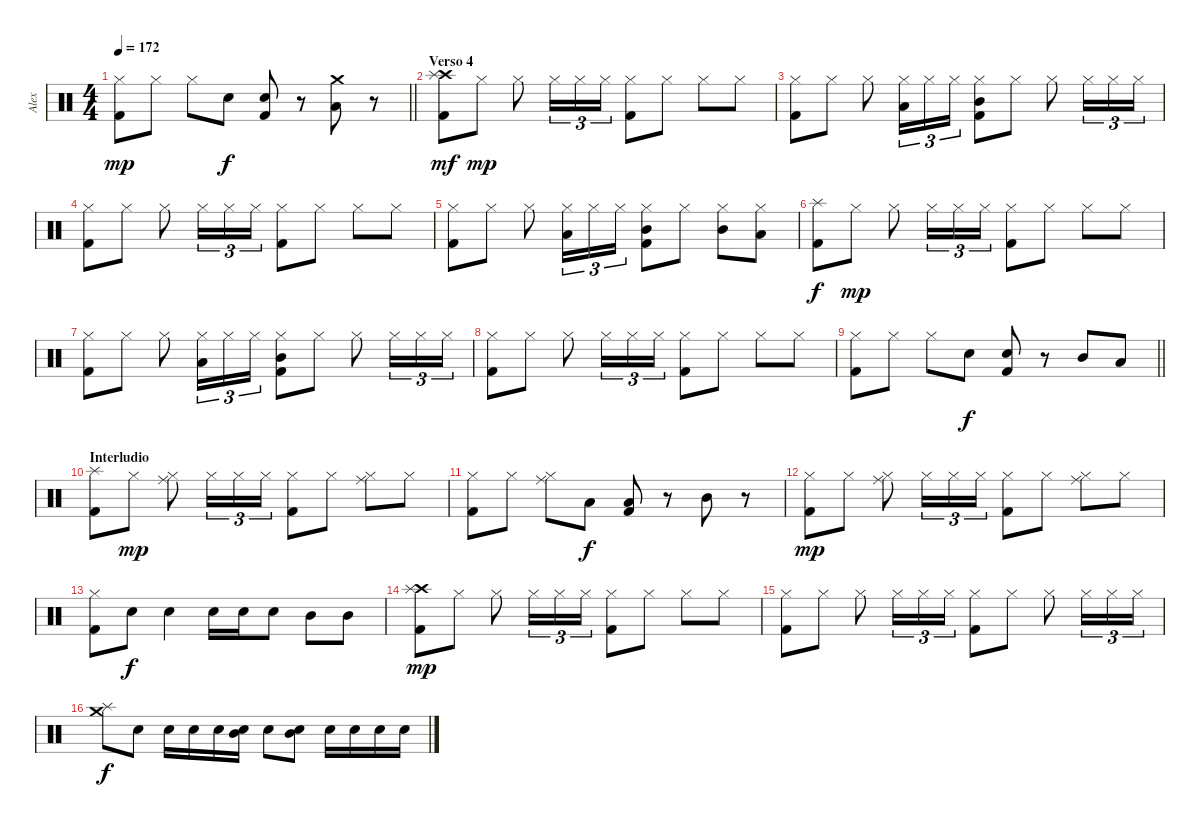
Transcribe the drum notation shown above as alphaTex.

\track ("Alex" "Alex") {instrument percussion}
\staff {score}
\articulation defaults
\ts (4 4)
\tempo 172
\clef neutral
\barLineRight lightlight
\ks c
("Hi-Hat (closed)" "Kick (hit) 2").8{dy mp} "Hi-Hat (closed)".8 "Hi-Hat (closed)".8 "Electric Snare (hit)".8{dy f} ("Electric Snare (hit)" "Kick (hit) 2").8 r.8 ("Low Tom (hit)" "Crash medium (hit)").8 r.8 |
\section ("" "Verso 4")
("Crash high (hit)" "Splash (hit)" "Kick (hit) 2").8{dy mf} "Hi-Hat (closed)".8{dy mp} "Hi-Hat (closed)".8 "Hi-Hat (closed)".16{tu (3 2)} "Hi-Hat (closed)".16{tu (3 2)} "Hi-Hat (closed)".16{tu (3 2)} ("Hi-Hat (closed)" "Kick (hit) 2").8 "Hi-Hat (closed)".8 "Hi-Hat (closed)".8 "Hi-Hat (closed)".8 |
("Hi-Hat (closed)" "Kick (hit) 2").8 "Hi-Hat (closed)".8 "Hi-Hat (closed)".8 ("Hi-Hat (closed)" "Low Tom (hit)").16{tu (3 2)} "Hi-Hat (closed)".16{tu (3 2)} "Hi-Hat (closed)".16{tu (3 2)} ("Hi-Hat (closed)" "Mid Tom (hit)" "Kick (hit) 2").8 "Hi-Hat (closed)".8 "Hi-Hat (closed)".8 "Hi-Hat (closed)".16{tu (3 2)} "Hi-Hat (closed)".16{tu (3 2)} "Hi-Hat (closed)".16{tu (3 2)} |
("Hi-Hat (closed)" "Kick (hit) 2").8 "Hi-Hat (closed)".8 "Hi-Hat (closed)".8 "Hi-Hat (closed)".16{tu (3 2)} "Hi-Hat (closed)".16{tu (3 2)} "Hi-Hat (closed)".16{tu (3 2)} ("Hi-Hat (closed)" "Kick (hit) 2").8 "Hi-Hat (closed)".8 "Hi-Hat (closed)".8 "Hi-Hat (closed)".8 |
("Hi-Hat (closed)" "Kick (hit) 2").8 "Hi-Hat (closed)".8 "Hi-Hat (closed)".8 ("Hi-Hat (closed)" "Low Tom (hit)").16{tu (3 2)} "Hi-Hat (closed)".16{tu (3 2)} "Hi-Hat (closed)".16{tu (3 2)} ("Hi-Hat (closed)" "Mid Tom (hit)" "Kick (hit) 2").8 "Hi-Hat (closed)".8 ("Hi-Hat (closed)" "Mid Tom (hit)").8 ("Hi-Hat (closed)" "Low Tom (hit)").8 |
("Splash (hit)" "Kick (hit) 2").8{dy f} "Hi-Hat (closed)".8{dy mp} "Hi-Hat (closed)".8 "Hi-Hat (closed)".16{tu (3 2)} "Hi-Hat (closed)".16{tu (3 2)} "Hi-Hat (closed)".16{tu (3 2)} ("Hi-Hat (closed)" "Kick (hit) 2").8 "Hi-Hat (closed)".8 "Hi-Hat (closed)".8 "Hi-Hat (closed)".8 |
("Hi-Hat (closed)" "Kick (hit) 2").8 "Hi-Hat (closed)".8 "Hi-Hat (closed)".8 ("Hi-Hat (closed)" "Low Tom (hit)").16{tu (3 2)} "Hi-Hat (closed)".16{tu (3 2)} "Hi-Hat (closed)".16{tu (3 2)} ("Hi-Hat (closed)" "Mid Tom (hit)" "Kick (hit) 2").8 "Hi-Hat (closed)".8 "Hi-Hat (closed)".8 "Hi-Hat (closed)".16{tu (3 2)} "Hi-Hat (closed)".16{tu (3 2)} "Hi-Hat (closed)".16{tu (3 2)} |
("Hi-Hat (closed)" "Kick (hit) 2").8 "Hi-Hat (closed)".8 "Hi-Hat (closed)".8 "Hi-Hat (closed)".16{tu (3 2)} "Hi-Hat (closed)".16{tu (3 2)} "Hi-Hat (closed)".16{tu (3 2)} ("Hi-Hat (closed)" "Kick (hit) 2").8 "Hi-Hat (closed)".8 "Hi-Hat (closed)".8 "Hi-Hat (closed)".8 |
\barLineRight lightlight
("Hi-Hat (closed)" "Kick (hit) 2").8 "Hi-Hat (closed)".8 "Hi-Hat (closed)".8 "Electric Snare (hit)".8{dy f} ("Electric Snare (hit)" "Kick (hit) 2").8 r.8 "Mid Tom (hit)".8 "Low Tom (hit)".8 |
\section ("" "Interludio")
("Splash (hit)" "Kick (hit) 2").8 "Hi-Hat (closed)".8{dy mp} ("Hi-Hat (closed)" "Ride (middle)").8 "Hi-Hat (closed)".16{tu (3 2)} "Hi-Hat (closed)".16{tu (3 2)} "Hi-Hat (closed)".16{tu (3 2)} ("Hi-Hat (closed)" "Kick (hit) 2").8 "Hi-Hat (closed)".8 ("Hi-Hat (closed)" "Ride (middle)").8 "Hi-Hat (closed)".8 |
("Hi-Hat (closed)" "Kick (hit) 2").8 "Hi-Hat (closed)".8 ("Hi-Hat (closed)" "Ride (middle)").8 "Low Tom (hit)".8{dy f} ("Low Tom (hit)" "Kick (hit) 2").8 r.8 "Mid Tom (hit)".8 r.8 |
("Hi-Hat (closed)" "Kick (hit) 2").8{dy mp} "Hi-Hat (closed)".8 ("Hi-Hat (closed)" "Ride (middle)").8 "Hi-Hat (closed)".16{tu (3 2)} "Hi-Hat (closed)".16{tu (3 2)} "Hi-Hat (closed)".16{tu (3 2)} ("Hi-Hat (closed)" "Kick (hit) 2").8 "Hi-Hat (closed)".8 ("Hi-Hat (closed)" "Ride (middle)").8 "Hi-Hat (closed)".8 |
("Hi-Hat (closed)" "Kick (hit) 2").8 "Electric Snare (hit)".8{dy f} "Electric Snare (hit)".4 "Electric Snare (hit)".16 "Electric Snare (hit)".16 "Electric Snare (hit)".8 "Mid Tom (hit)".8 "Mid Tom (hit)".8 |
("Crash high (hit)" "Splash (hit)" "Kick (hit) 2").8{dy mp} "Hi-Hat (closed)".8 "Hi-Hat (closed)".8 "Hi-Hat (closed)".16{tu (3 2)} "Hi-Hat (closed)".16{tu (3 2)} "Hi-Hat (closed)".16{tu (3 2)} ("Hi-Hat (closed)" "Kick (hit) 2").8 "Hi-Hat (closed)".8 "Hi-Hat (closed)".8 "Hi-Hat (closed)".8 |
("Hi-Hat (closed)" "Kick (hit) 2").8 "Hi-Hat (closed)".8 "Hi-Hat (closed)".8 "Hi-Hat (closed)".16{tu (3 2)} "Hi-Hat (closed)".16{tu (3 2)} "Hi-Hat (closed)".16{tu (3 2)} ("Hi-Hat (closed)" "Kick (hit) 2").8 "Hi-Hat (closed)".8 "Hi-Hat (closed)".8 "Hi-Hat (closed)".16{tu (3 2)} "Hi-Hat (closed)".16{tu (3 2)} "Hi-Hat (closed)".16{tu (3 2)} |
("Splash (hit)" "Crash medium (hit)").8{dy f} "Electric Snare (hit)".8 "Electric Snare (hit)".16 "Electric Snare (hit)".16 "Electric Snare (hit)".16 ("Electric Snare (hit)" "Mid Tom (hit)").16 "Electric Snare (hit)".8 ("Electric Snare (hit)" "Mid Tom (hit)").8 "Electric Snare (hit)".16 "Electric Snare (hit)".16 "Electric Snare (hit)".16 "Electric Snare (hit)".16
